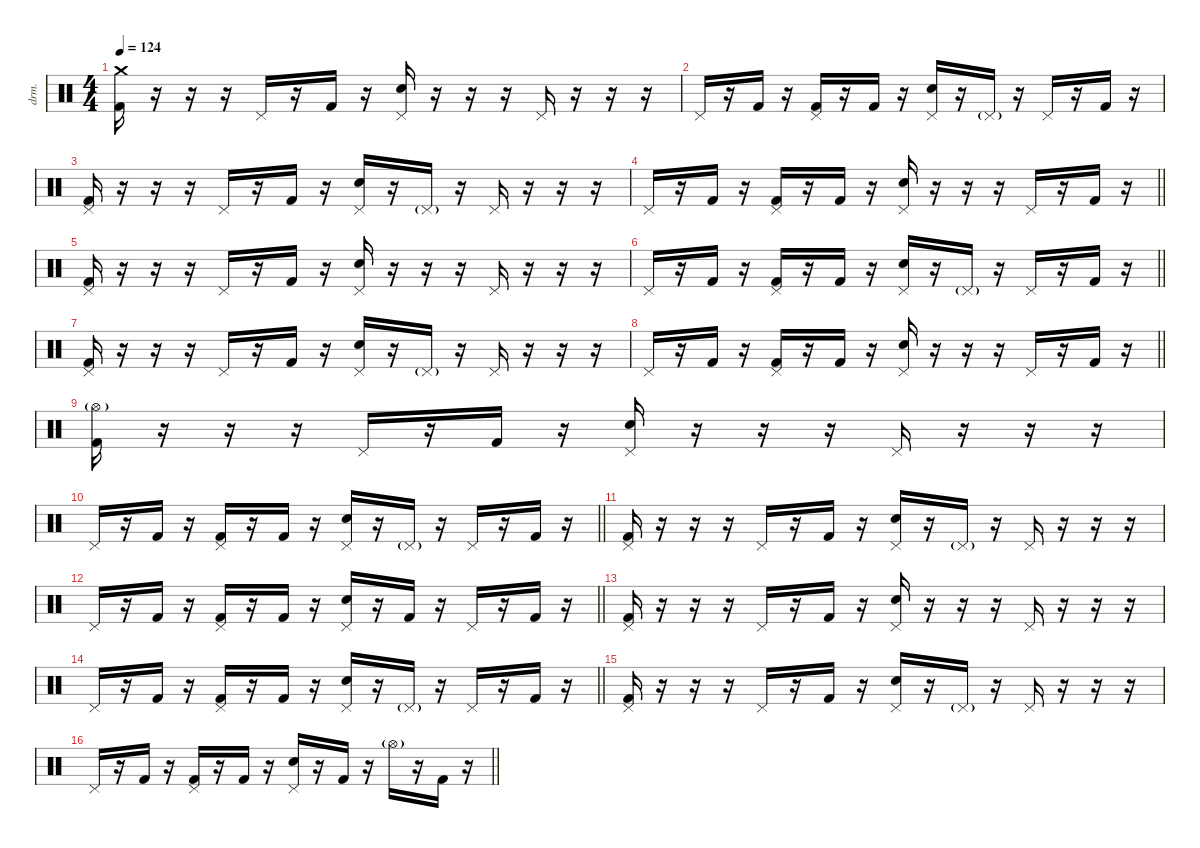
\defaultSystemsLayout 4
\hideDynamics
\bracketExtendMode nobrackets
\otherSystemsTrackNameOrientation horizontal
\track ("Percussion" "drm.") {instrument percussion}
\staff {score}
\articulation defaults
\ts (4 4)
\section ("" "")
\tempo 124
\clef neutral
\ks c
("Kick (hit) 2" "Crash medium (hit)").16{dy f beam Down} r.16{beam Down} r.16{beam Down} r.16{beam Down} "Pedal Hi-Hat (hit)".16{beam Up} r.16{beam Up} "Kick (hit) 2".16{beam Up} r.16{beam Up} ("Snare (hit) 2" "Pedal Hi-Hat (hit)").16{beam Up} r.16{beam Up} r.16{beam Up} r.16{beam Up} "Pedal Hi-Hat (hit)".16{beam Up} r.16{beam Up} r.16{beam Up} r.16{beam Up} |
"Pedal Hi-Hat (hit)".16{beam Up} r.16{beam Up} "Kick (hit) 2".16{beam Up} r.16{beam Up} ("Kick (hit) 2" "Pedal Hi-Hat (hit)").16{beam Up} r.16{beam Up} "Kick (hit) 2".16{beam Up} r.16{beam Up} ("Snare (hit) 2" "Pedal Hi-Hat (hit)").16{beam Up} r.16{beam Up} "Pedal Hi-Hat (hit)"{g}.16{dy mf beam Up} r.16{beam Up} "Pedal Hi-Hat (hit)".16{dy f beam Up} r.16{beam Up} "Kick (hit) 2".16{beam Up} r.16{beam Up} |
("Kick (hit) 2" "Pedal Hi-Hat (hit)").16{beam Up} r.16{beam Up} r.16{beam Up} r.16{beam Up} "Pedal Hi-Hat (hit)".16{beam Up} r.16{beam Up} "Kick (hit) 2".16{beam Up} r.16{beam Up} ("Snare (hit) 2" "Pedal Hi-Hat (hit)").16{beam Up} r.16{beam Up} "Pedal Hi-Hat (hit)"{g}.16{dy mf beam Up} r.16{beam Up} "Pedal Hi-Hat (hit)".16{dy f beam Up} r.16{beam Up} r.16{beam Up} r.16{beam Up} |
\barLineRight lightlight "Pedal Hi-Hat (hit)".16{beam Up}
r.16{beam Up} "Kick (hit) 2".16{beam Up} r.16{beam Up} ("Kick (hit) 2" "Pedal Hi-Hat (hit)").16{beam Up} r.16{beam Up} "Kick (hit) 2".16{beam Up} r.16{beam Up} ("Snare (hit) 2" "Pedal Hi-Hat (hit)").16{beam Up} r.16{beam Up} r.16{beam Up} r.16{beam Up} "Pedal Hi-Hat (hit)".16{beam Up} r.16{beam Up} "Kick (hit) 2".16{beam Up} r.16{beam Up} |
("Kick (hit) 2" "Pedal Hi-Hat (hit)").16{beam Up} r.16{beam Up} r.16{beam Up} r.16{beam Up} "Pedal Hi-Hat (hit)".16{beam Up} r.16{beam Up} "Kick (hit) 2".16{beam Up} r.16{beam Up} ("Snare (hit) 2" "Pedal Hi-Hat (hit)").16{beam Up} r.16{beam Up} r.16{beam Up} r.16{beam Up} "Pedal Hi-Hat (hit)".16{beam Up} r.16{beam Up} r.16{beam Up} r.16{beam Up} |
\barLineRight lightlight "Pedal Hi-Hat (hit)".16{beam Up}
r.16{beam Up} "Kick (hit) 2".16{beam Up} r.16{beam Up} ("Kick (hit) 2" "Pedal Hi-Hat (hit)").16{beam Up} r.16{beam Up} "Kick (hit) 2".16{beam Up} r.16{beam Up} ("Snare (hit) 2" "Pedal Hi-Hat (hit)").16{beam Up} r.16{beam Up} "Pedal Hi-Hat (hit)"{g}.16{dy mf beam Up} r.16{beam Up} "Pedal Hi-Hat (hit)".16{dy f beam Up} r.16{beam Up} "Kick (hit) 2".16{beam Up} r.16{beam Up} |
("Kick (hit) 2" "Pedal Hi-Hat (hit)").16{beam Up} r.16{beam Up} r.16{beam Up} r.16{beam Up} "Pedal Hi-Hat (hit)".16{beam Up} r.16{beam Up} "Kick (hit) 2".16{beam Up} r.16{beam Up} ("Snare (hit) 2" "Pedal Hi-Hat (hit)").16{beam Up} r.16{beam Up} "Pedal Hi-Hat (hit)"{g}.16{dy mf beam Up} r.16{beam Up} "Pedal Hi-Hat (hit)".16{dy f beam Up} r.16{beam Up} r.16{beam Up} r.16{beam Up} |
\barLineRight lightlight "Pedal Hi-Hat (hit)".16{beam Up}
r.16{beam Up} "Kick (hit) 2".16{beam Up} r.16{beam Up} ("Kick (hit) 2" "Pedal Hi-Hat (hit)").16{beam Up} r.16{beam Up} "Kick (hit) 2".16{beam Up} r.16{beam Up} ("Snare (hit) 2" "Pedal Hi-Hat (hit)").16{beam Up} r.16{beam Up} r.16{beam Up} r.16{beam Up} "Pedal Hi-Hat (hit)".16{beam Up} r.16{beam Up} "Kick (hit) 2".16{beam Up} r.16{beam Up} |
("Kick (hit) 2" "Hi-Hat (open)"{g}).16{beam Down} r.16{beam Down} r.16{beam Down} r.16{beam Down} "Pedal Hi-Hat (hit)".16{beam Up} r.16{beam Up} "Kick (hit) 2".16{beam Up} r.16{beam Up} ("Snare (hit) 2" "Pedal Hi-Hat (hit)").16{beam Up} r.16{beam Up} r.16{beam Up} r.16{beam Up} "Pedal Hi-Hat (hit)".16{beam Up} r.16{beam Up} r.16{beam Up} r.16{beam Up} |
\barLineRight lightlight "Pedal Hi-Hat (hit)".16{beam Up}
r.16{beam Up} "Kick (hit) 2".16{beam Up} r.16{beam Up} ("Kick (hit) 2" "Pedal Hi-Hat (hit)").16{beam Up} r.16{beam Up} "Kick (hit) 2".16{beam Up} r.16{beam Up} ("Snare (hit) 2" "Pedal Hi-Hat (hit)").16{beam Up} r.16{beam Up} "Pedal Hi-Hat (hit)"{g}.16{dy mf beam Up} r.16{beam Up} "Pedal Hi-Hat (hit)".16{dy f beam Up} r.16{beam Up} "Kick (hit) 2".16{beam Up} r.16{beam Up} |
("Kick (hit) 2" "Pedal Hi-Hat (hit)").16{beam Up} r.16{beam Up} r.16{beam Up} r.16{beam Up} "Pedal Hi-Hat (hit)".16{beam Up} r.16{beam Up} "Kick (hit) 2".16{beam Up} r.16{beam Up} ("Snare (hit) 2" "Pedal Hi-Hat (hit)").16{beam Up} r.16{beam Up} "Pedal Hi-Hat (hit)"{g}.16{dy mf beam Up} r.16{beam Up} "Pedal Hi-Hat (hit)".16{dy f beam Up} r.16{beam Up} r.16{beam Up} r.16{beam Up} |
\barLineRight lightlight "Pedal Hi-Hat (hit)".16{beam Up}
r.16{beam Up} "Kick (hit) 2".16{beam Up} r.16{beam Up} ("Kick (hit) 2" "Pedal Hi-Hat (hit)").16{beam Up} r.16{beam Up} "Kick (hit) 2".16{beam Up} r.16{beam Up} ("Snare (hit) 2" "Pedal Hi-Hat (hit)").16{beam Up} r.16{beam Up} "Kick (hit) 2".16{beam Up} r.16{beam Up} "Pedal Hi-Hat (hit)".16{beam Up} r.16{beam Up} "Kick (hit) 2".16{beam Up} r.16{beam Up} |
("Kick (hit) 2" "Pedal Hi-Hat (hit)").16{beam Up} r.16{beam Up} r.16{beam Up} r.16{beam Up} "Pedal Hi-Hat (hit)".16{beam Up} r.16{beam Up} "Kick (hit) 2".16{beam Up} r.16{beam Up} ("Snare (hit) 2" "Pedal Hi-Hat (hit)").16{beam Up} r.16{beam Up} r.16{beam Up} r.16{beam Up} "Pedal Hi-Hat (hit)".16{beam Up} r.16{beam Up} r.16{beam Up} r.16{beam Up} |
\barLineRight lightlight "Pedal Hi-Hat (hit)".16{beam Up}
r.16{beam Up} "Kick (hit) 2".16{beam Up} r.16{beam Up} ("Kick (hit) 2" "Pedal Hi-Hat (hit)").16{beam Up} r.16{beam Up} "Kick (hit) 2".16{beam Up} r.16{beam Up} ("Snare (hit) 2" "Pedal Hi-Hat (hit)").16{beam Up} r.16{beam Up} "Pedal Hi-Hat (hit)"{g}.16{dy mf beam Up} r.16{beam Up} "Pedal Hi-Hat (hit)".16{dy f beam Up} r.16{beam Up} "Kick (hit) 2".16{beam Up} r.16{beam Up} |
("Kick (hit) 2" "Pedal Hi-Hat (hit)").16{beam Up} r.16{beam Up} r.16{beam Up} r.16{beam Up} "Pedal Hi-Hat (hit)".16{beam Up} r.16{beam Up} "Kick (hit) 2".16{beam Up} r.16{beam Up} ("Snare (hit) 2" "Pedal Hi-Hat (hit)").16{beam Up} r.16{beam Up} "Pedal Hi-Hat (hit)"{g}.16{dy mf beam Up} r.16{beam Up} "Pedal Hi-Hat (hit)".16{dy f beam Up} r.16{beam Up} r.16{beam Up} r.16{beam Up} |
\barLineRight lightlight "Pedal Hi-Hat (hit)".16{beam Up}
r.16{beam Up} "Kick (hit) 2".16{beam Up} r.16{beam Up} ("Kick (hit) 2" "Pedal Hi-Hat (hit)").16{beam Up} r.16{beam Up} "Kick (hit) 2".16{beam Up} r.16{beam Up} ("Snare (hit) 2" "Pedal Hi-Hat (hit)").16{beam Up} r.16{beam Up} "Kick (hit) 2".16{beam Up} r.16{beam Up} "Hi-Hat (open)"{g}.16{dy mf beam Down} r.16{beam Down} "Kick (hit) 2".16{dy f beam Down} r.16{beam Down}
